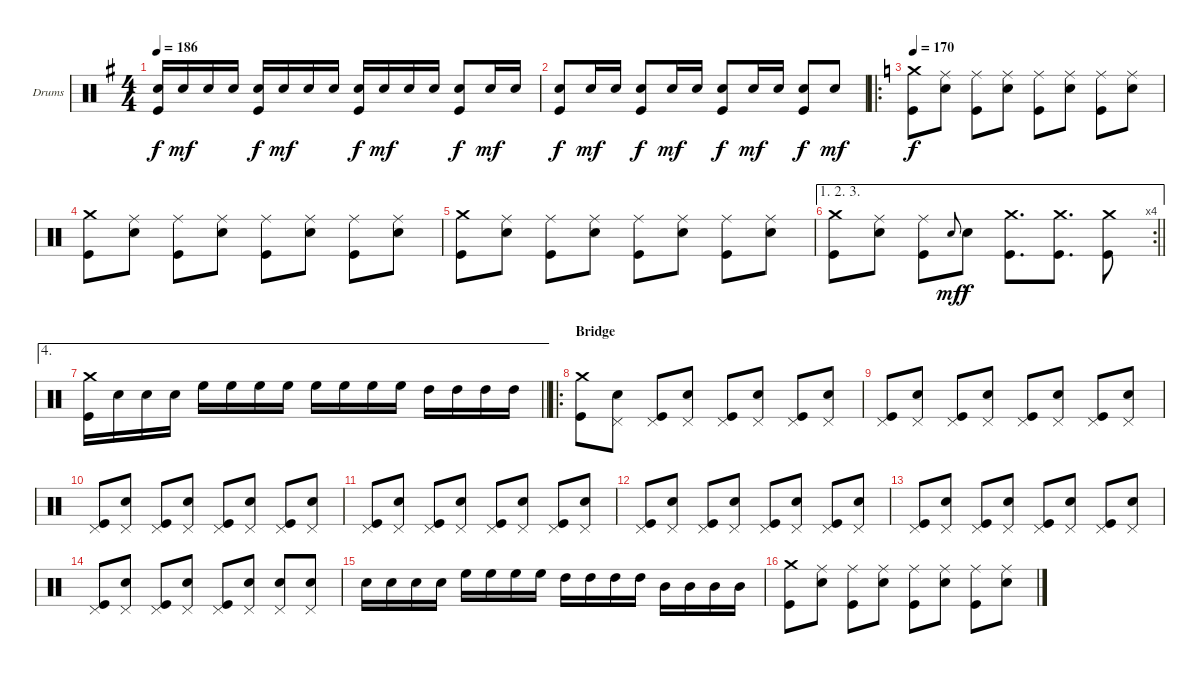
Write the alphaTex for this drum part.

\bracketExtendMode groupsimilarinstruments
\firstSystemTrackNameOrientation horizontal
\otherSystemsTrackNameOrientation horizontal
\track ("Drums" "Drums") {instrument percussion}
\staff {score}
\articulation defaults
\ts (4 4)
\tempo 186
\clef neutral
\ks g
("Kick (hit)" "Snare (hit) 2").16{dy f} "Snare (hit) 2".16{dy mf} "Snare (hit) 2".16 "Snare (hit) 2".16 ("Kick (hit)" "Snare (hit) 2").16{dy f} "Snare (hit) 2".16{dy mf} "Snare (hit) 2".16 "Snare (hit) 2".16 ("Kick (hit)" "Snare (hit) 2").16{dy f} "Snare (hit) 2".16{dy mf} "Snare (hit) 2".16 "Snare (hit) 2".16 ("Snare (hit) 2" "Kick (hit)").8{dy f} "Snare (hit) 2".16{dy mf} "Snare (hit) 2".16 |
("Snare (hit) 2" "Kick (hit)").8{dy f} "Snare (hit) 2".16{dy mf} "Snare (hit) 2".16 ("Snare (hit) 2" "Kick (hit)").8{dy f} "Snare (hit) 2".16{dy mf} "Snare (hit) 2".16 ("Snare (hit) 2" "Kick (hit)").8{dy f} "Snare (hit) 2".16{dy mf} "Snare (hit) 2".16 ("Snare (hit) 2" "Kick (hit)").8{dy f} "Snare (hit) 2".8{dy mf} |
\ro
\tempo 170
\ks c
("Crash medium (hit)" "Kick (hit)").8{dy f} ("Ride (middle)" "Snare (hit) 2").8 ("Ride (middle)" "Kick (hit)").8 ("Ride (middle)" "Snare (hit) 2").8 ("Ride (middle)" "Kick (hit)").8 ("Ride (middle)" "Snare (hit) 2").8 ("Ride (middle)" "Kick (hit)").8 ("Ride (middle)" "Snare (hit) 2").8 |
("Crash medium (hit)" "Kick (hit)").8 ("Ride (middle)" "Snare (hit) 2").8 ("Ride (middle)" "Kick (hit)").8 ("Ride (middle)" "Snare (hit) 2").8 ("Ride (middle)" "Kick (hit)").8 ("Ride (middle)" "Snare (hit) 2").8 ("Ride (middle)" "Kick (hit)").8 ("Ride (middle)" "Snare (hit) 2").8 |
("Crash medium (hit)" "Kick (hit)").8 ("Ride (middle)" "Snare (hit) 2").8 ("Ride (middle)" "Kick (hit)").8 ("Ride (middle)" "Snare (hit) 2").8 ("Ride (middle)" "Kick (hit)").8 ("Ride (middle)" "Snare (hit) 2").8 ("Ride (middle)" "Kick (hit)").8 ("Ride (middle)" "Snare (hit) 2").8 |
\ae (1 2 3)
\rc 4
\barLineRight lightlight
("Crash medium (hit)" "Kick (hit)").8 ("Ride (middle)" "Snare (hit) 2").8 ("Ride (middle)" "Kick (hit)").8 "Snare (hit) 2".8{gr onbeat dy mf} "Snare (hit) 2".8{dy f} ("Crash medium (hit)" "Kick (hit)").8{d} ("Crash medium (hit)" "Kick (hit)").8{d} ("Crash medium (hit)" "Kick (hit)").8 |
\ae 4
\barLineRight lightlight
("Crash medium (hit)" "Kick (hit)").16 "Snare (hit) 2".16 "Snare (hit) 2".16 "Snare (hit) 2".16 "High Floor Tom (hit)".16 "High Floor Tom (hit)".16 "High Floor Tom (hit)".16 "High Floor Tom (hit)".16 "High Floor Tom (hit)".16 "High Floor Tom (hit)".16 "High Floor Tom (hit)".16 "High Floor Tom (hit)".16 "High Tom (hit)".16 "High Tom (hit)".16 "High Tom (hit)".16 "High Tom (hit)".16 |
\ro
\section ("" "Bridge")
("Crash medium (hit)" "Kick (hit)").8 ("Pedal Hi-Hat (hit)" "Snare (hit) 2").8 ("Pedal Hi-Hat (hit)" "Kick (hit)").8 ("Pedal Hi-Hat (hit)" "Snare (hit) 2").8 ("Pedal Hi-Hat (hit)" "Kick (hit)").8 ("Pedal Hi-Hat (hit)" "Snare (hit) 2").8 ("Pedal Hi-Hat (hit)" "Kick (hit)").8 ("Pedal Hi-Hat (hit)" "Snare (hit) 2").8 |
("Pedal Hi-Hat (hit)" "Kick (hit)").8 ("Pedal Hi-Hat (hit)" "Snare (hit) 2").8 ("Pedal Hi-Hat (hit)" "Kick (hit)").8 ("Pedal Hi-Hat (hit)" "Snare (hit) 2").8 ("Pedal Hi-Hat (hit)" "Kick (hit)").8 ("Pedal Hi-Hat (hit)" "Snare (hit) 2").8 ("Pedal Hi-Hat (hit)" "Kick (hit)").8 ("Pedal Hi-Hat (hit)" "Snare (hit) 2").8 |
("Pedal Hi-Hat (hit)" "Kick (hit)").8 ("Pedal Hi-Hat (hit)" "Snare (hit) 2").8 ("Pedal Hi-Hat (hit)" "Kick (hit)").8 ("Pedal Hi-Hat (hit)" "Snare (hit) 2").8 ("Pedal Hi-Hat (hit)" "Kick (hit)").8 ("Pedal Hi-Hat (hit)" "Snare (hit) 2").8 ("Pedal Hi-Hat (hit)" "Kick (hit)").8 ("Pedal Hi-Hat (hit)" "Snare (hit) 2").8 |
("Pedal Hi-Hat (hit)" "Kick (hit)").8 ("Pedal Hi-Hat (hit)" "Snare (hit) 2").8 ("Pedal Hi-Hat (hit)" "Kick (hit)").8 ("Pedal Hi-Hat (hit)" "Snare (hit) 2").8 ("Pedal Hi-Hat (hit)" "Kick (hit)").8 ("Pedal Hi-Hat (hit)" "Snare (hit) 2").8 ("Pedal Hi-Hat (hit)" "Kick (hit)").8 ("Pedal Hi-Hat (hit)" "Snare (hit) 2").8 |
("Pedal Hi-Hat (hit)" "Kick (hit)").8 ("Pedal Hi-Hat (hit)" "Snare (hit) 2").8 ("Pedal Hi-Hat (hit)" "Kick (hit)").8 ("Pedal Hi-Hat (hit)" "Snare (hit) 2").8 ("Pedal Hi-Hat (hit)" "Kick (hit)").8 ("Pedal Hi-Hat (hit)" "Snare (hit) 2").8 ("Pedal Hi-Hat (hit)" "Kick (hit)").8 ("Pedal Hi-Hat (hit)" "Snare (hit) 2").8 |
("Pedal Hi-Hat (hit)" "Kick (hit)").8 ("Pedal Hi-Hat (hit)" "Snare (hit) 2").8 ("Pedal Hi-Hat (hit)" "Kick (hit)").8 ("Pedal Hi-Hat (hit)" "Snare (hit) 2").8 ("Pedal Hi-Hat (hit)" "Kick (hit)").8 ("Pedal Hi-Hat (hit)" "Snare (hit) 2").8 ("Pedal Hi-Hat (hit)" "Kick (hit)").8 ("Pedal Hi-Hat (hit)" "Snare (hit) 2").8 |
("Pedal Hi-Hat (hit)" "Kick (hit)").8 ("Pedal Hi-Hat (hit)" "Snare (hit) 2").8 ("Pedal Hi-Hat (hit)" "Kick (hit)").8 ("Pedal Hi-Hat (hit)" "Snare (hit) 2").8 ("Pedal Hi-Hat (hit)" "Kick (hit)").8 ("Pedal Hi-Hat (hit)" "Snare (hit) 2").8 ("Pedal Hi-Hat (hit)" "Snare (hit) 2").8 ("Pedal Hi-Hat (hit)" "Snare (hit) 2").8 |
"Snare (hit) 2".16 "Snare (hit) 2".16 "Snare (hit) 2".16 "Snare (hit) 2".16 "High Floor Tom (hit)".16 "High Floor Tom (hit)".16 "High Floor Tom (hit)".16 "High Floor Tom (hit)".16 "High Tom (hit)".16 "High Tom (hit)".16 "High Tom (hit)".16 "High Tom (hit)".16 "Mid Tom (hit)".16 "Mid Tom (hit)".16 "Mid Tom (hit)".16 "Mid Tom (hit)".16 |
("Crash medium (hit)" "Kick (hit)").8 ("Ride (middle)" "Snare (hit) 2").8 ("Ride (middle)" "Kick (hit)").8 ("Ride (middle)" "Snare (hit) 2").8 ("Ride (middle)" "Kick (hit)").8 ("Ride (middle)" "Snare (hit) 2").8 ("Ride (middle)" "Kick (hit)").8 ("Ride (middle)" "Snare (hit) 2").8
